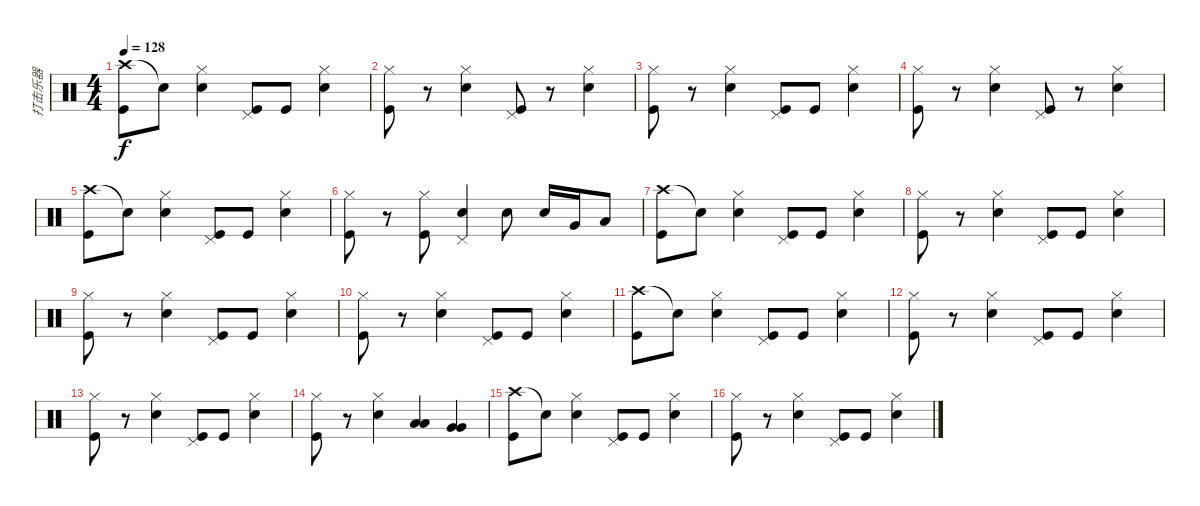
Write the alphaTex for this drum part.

\track ("打击乐器" "打击乐器") {instrument percussion}
\staff {score}
\articulation defaults
\ts (4 4)
\tempo 128
\clef neutral
\ks c
("Crash high (hit)" "Kick (hit)").8{dy f} "Snare (hit)"{t}.8 ("Hi-Hat (closed)" "Snare (hit) 2").4 ("Pedal Hi-Hat (hit)" "Kick (hit)").8 "Kick (hit)".8 ("Hi-Hat (closed)" "Snare (hit) 2").4 |
("Hi-Hat (closed)" "Kick (hit)").8 r.8 ("Hi-Hat (closed)" "Snare (hit) 2").4 ("Pedal Hi-Hat (hit)" "Kick (hit)").8 r.8 ("Hi-Hat (closed)" "Snare (hit) 2").4 |
("Hi-Hat (closed)" "Kick (hit)").8 r.8 ("Hi-Hat (closed)" "Snare (hit) 2").4 ("Pedal Hi-Hat (hit)" "Kick (hit)").8 "Kick (hit)".8 ("Hi-Hat (closed)" "Snare (hit) 2").4 |
("Hi-Hat (closed)" "Kick (hit)").8 r.8 ("Hi-Hat (closed)" "Snare (hit) 2").4 ("Pedal Hi-Hat (hit)" "Kick (hit)").8 r.8 ("Hi-Hat (closed)" "Snare (hit) 2").4 |
("Crash high (hit)" "Kick (hit)").8 "Snare (hit)"{t}.8 ("Hi-Hat (closed)" "Snare (hit) 2").4 ("Pedal Hi-Hat (hit)" "Kick (hit)").8 "Kick (hit)".8 ("Hi-Hat (closed)" "Snare (hit) 2").4 |
("Hi-Hat (closed)" "Kick (hit)").8 r.8 ("Hi-Hat (closed)" "Kick (hit)").8 ("Pedal Hi-Hat (hit)" "Snare (hit) 2").4 "Snare (hit) 2".8 "Snare (hit) 2".16 "Very Low Tom (hit)".16 "Low Floor Tom (hit)".8 |
("Crash high (hit)" "Kick (hit)").8 "Snare (hit)"{t}.8 ("Hi-Hat (closed)" "Snare (hit) 2").4 ("Pedal Hi-Hat (hit)" "Kick (hit)").8 "Kick (hit)".8 ("Hi-Hat (closed)" "Snare (hit) 2").4 |
("Hi-Hat (closed)" "Kick (hit)").8 r.8 ("Hi-Hat (closed)" "Snare (hit) 2").4 ("Pedal Hi-Hat (hit)" "Kick (hit)").8 "Kick (hit)".8 ("Hi-Hat (closed)" "Snare (hit) 2").4 |
("Hi-Hat (closed)" "Kick (hit)").8 r.8 ("Hi-Hat (closed)" "Snare (hit) 2").4 ("Pedal Hi-Hat (hit)" "Kick (hit)").8 "Kick (hit)".8 ("Hi-Hat (closed)" "Snare (hit) 2").4 |
("Hi-Hat (closed)" "Kick (hit)").8 r.8 ("Hi-Hat (closed)" "Snare (hit) 2").4 ("Pedal Hi-Hat (hit)" "Kick (hit)").8 "Kick (hit)".8 ("Hi-Hat (closed)" "Snare (hit) 2").4 |
("Crash high (hit)" "Kick (hit)").8 "Snare (hit)"{t}.8 ("Hi-Hat (closed)" "Snare (hit) 2").4 ("Pedal Hi-Hat (hit)" "Kick (hit)").8 "Kick (hit)".8 ("Hi-Hat (closed)" "Snare (hit) 2").4 |
("Hi-Hat (closed)" "Kick (hit)").8 r.8 ("Hi-Hat (closed)" "Snare (hit) 2").4 ("Pedal Hi-Hat (hit)" "Kick (hit)").8 "Kick (hit)".8 ("Hi-Hat (closed)" "Snare (hit) 2").4 |
("Hi-Hat (closed)" "Kick (hit)").8 r.8 ("Hi-Hat (closed)" "Snare (hit) 2").4 ("Pedal Hi-Hat (hit)" "Kick (hit)").8 "Kick (hit)".8 ("Hi-Hat (closed)" "Snare (hit) 2").4 |
("Hi-Hat (closed)" "Kick (hit)").8 r.8 ("Hi-Hat (closed)" "Snare (hit) 2").4 ("Low Tom (hit)" "Low Tom (hit)").4 ("Very Low Tom (hit)" "Very Low Tom (hit)").4 |
("Crash high (hit)" "Kick (hit)").8 "Snare (hit)"{t}.8 ("Hi-Hat (closed)" "Snare (hit) 2").4 ("Pedal Hi-Hat (hit)" "Kick (hit)").8 "Kick (hit)".8 ("Hi-Hat (closed)" "Snare (hit) 2").4 |
("Hi-Hat (closed)" "Kick (hit)").8 r.8 ("Hi-Hat (closed)" "Snare (hit) 2").4 ("Pedal Hi-Hat (hit)" "Kick (hit)").8 "Kick (hit)".8 ("Hi-Hat (closed)" "Snare (hit) 2").4
